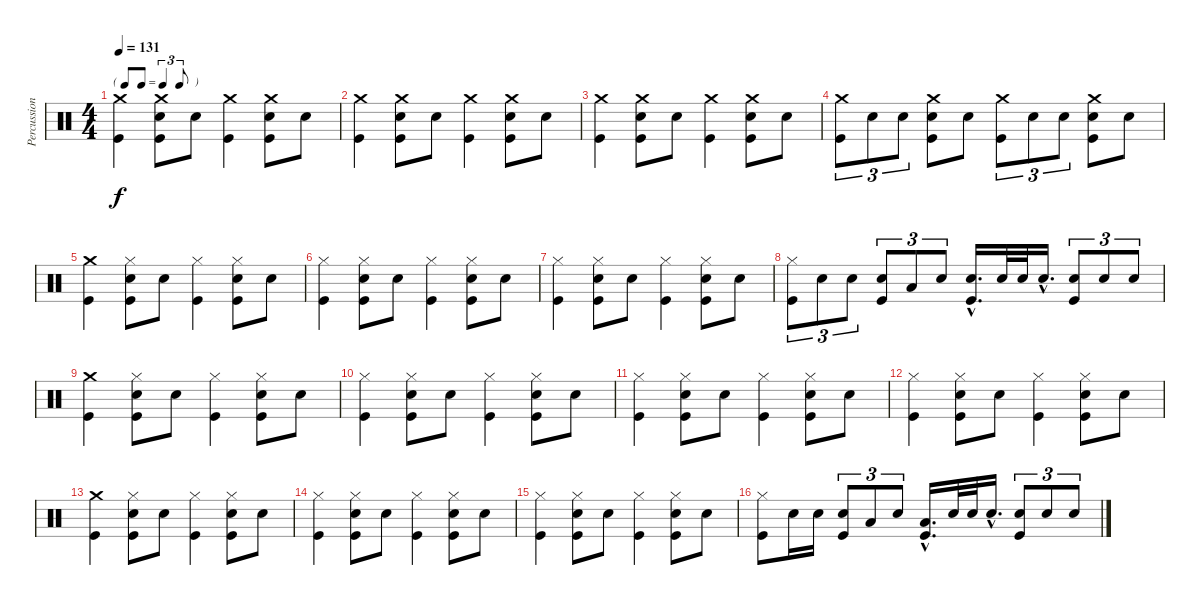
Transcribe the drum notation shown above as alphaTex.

\track ("Percussion" "Percussion") {instrument percussion}
\staff {score}
\articulation defaults
\ts (4 4)
\tf triplet8th
\tempo 131
\clef neutral
\ks c
("Crash medium (hit)" "Kick (hit)").4{dy f} ("Crash medium (hit)" "Snare (hit) 2" "Kick (hit)").8 "Snare (hit) 2".8 ("Crash medium (hit)" "Kick (hit)").4 ("Crash medium (hit)" "Snare (hit) 2" "Kick (hit)").8 "Snare (hit) 2".8 |
("Crash medium (hit)" "Kick (hit)").4 ("Crash medium (hit)" "Snare (hit) 2" "Kick (hit)").8 "Snare (hit) 2".8 ("Crash medium (hit)" "Kick (hit)").4 ("Crash medium (hit)" "Snare (hit) 2" "Kick (hit)").8 "Snare (hit) 2".8 |
("Crash medium (hit)" "Kick (hit)").4 ("Crash medium (hit)" "Snare (hit) 2" "Kick (hit)").8 "Snare (hit) 2".8 ("Crash medium (hit)" "Kick (hit)").4 ("Crash medium (hit)" "Snare (hit) 2" "Kick (hit)").8 "Snare (hit) 2".8 |
("Crash medium (hit)" "Kick (hit)").8{tu (3 2)} "Snare (hit) 2".8{tu (3 2)} "Snare (hit) 2".8{tu (3 2)} ("Crash medium (hit)" "Snare (hit) 2" "Kick (hit)").8 "Snare (hit) 2".8 ("Crash medium (hit)" "Kick (hit)").8{tu (3 2)} "Snare (hit) 2".8{tu (3 2)} "Snare (hit) 2".8{tu (3 2)} ("Crash medium (hit)" "Snare (hit) 2" "Kick (hit)").8 "Snare (hit) 2".8 |
("Crash medium (hit)" "Kick (hit)").4 ("Hi-Hat (closed)" "Snare (hit) 2" "Kick (hit)").8 "Snare (hit) 2".8 ("Hi-Hat (closed)" "Kick (hit)").4 ("Hi-Hat (closed)" "Snare (hit) 2" "Kick (hit)").8 "Snare (hit) 2".8 |
("Hi-Hat (closed)" "Kick (hit)").4 ("Hi-Hat (closed)" "Snare (hit) 2" "Kick (hit)").8 "Snare (hit) 2".8 ("Hi-Hat (closed)" "Kick (hit)").4 ("Hi-Hat (closed)" "Snare (hit) 2" "Kick (hit)").8 "Snare (hit) 2".8 |
("Hi-Hat (closed)" "Kick (hit)").4 ("Hi-Hat (closed)" "Snare (hit) 2" "Kick (hit)").8 "Snare (hit) 2".8 ("Hi-Hat (closed)" "Kick (hit)").4 ("Hi-Hat (closed)" "Snare (hit) 2" "Kick (hit)").8 "Snare (hit) 2".8 |
("Hi-Hat (closed)" "Kick (hit)").8{tu (3 2)} "Snare (hit) 2".8{tu (3 2)} "Snare (hit) 2".8{tu (3 2)} ("Snare (hit) 2" "Kick (hit)").8{tu (3 2)} "Low Tom (hit)".8{tu (3 2)} "Snare (hit) 2".8{tu (3 2)} ("Snare (hit) 2"{hac} "Kick (hit)"{hac}).16{d} "Snare (hit) 2".32 "Snare (hit) 2".32 "Snare (hit) 2"{hac}.16{d} ("Snare (hit) 2" "Kick (hit)").8{tu (3 2)} "Snare (hit) 2".8{tu (3 2)} "Snare (hit) 2".8{tu (3 2)} |
("Crash medium (hit)" "Kick (hit)").4 ("Hi-Hat (closed)" "Snare (hit) 2" "Kick (hit)").8 "Snare (hit) 2".8 ("Hi-Hat (closed)" "Kick (hit)").4 ("Hi-Hat (closed)" "Snare (hit) 2" "Kick (hit)").8 "Snare (hit) 2".8 |
("Hi-Hat (closed)" "Kick (hit)").4 ("Hi-Hat (closed)" "Snare (hit) 2" "Kick (hit)").8 "Snare (hit) 2".8 ("Hi-Hat (closed)" "Kick (hit)").4 ("Hi-Hat (closed)" "Snare (hit) 2" "Kick (hit)").8 "Snare (hit) 2".8 |
("Hi-Hat (closed)" "Kick (hit)").4 ("Hi-Hat (closed)" "Snare (hit) 2" "Kick (hit)").8 "Snare (hit) 2".8 ("Hi-Hat (closed)" "Kick (hit)").4 ("Hi-Hat (closed)" "Snare (hit) 2" "Kick (hit)").8 "Snare (hit) 2".8 |
("Hi-Hat (closed)" "Kick (hit)").4 ("Hi-Hat (closed)" "Snare (hit) 2" "Kick (hit)").8 "Snare (hit) 2".8 ("Hi-Hat (closed)" "Kick (hit)").4 ("Hi-Hat (closed)" "Snare (hit) 2" "Kick (hit)").8 "Snare (hit) 2".8 |
("Crash medium (hit)" "Kick (hit)").4 ("Hi-Hat (closed)" "Snare (hit) 2" "Kick (hit)").8 "Snare (hit) 2".8 ("Hi-Hat (closed)" "Kick (hit)").4 ("Hi-Hat (closed)" "Snare (hit) 2" "Kick (hit)").8 "Snare (hit) 2".8 |
("Hi-Hat (closed)" "Kick (hit)").4 ("Hi-Hat (closed)" "Snare (hit) 2" "Kick (hit)").8 "Snare (hit) 2".8 ("Hi-Hat (closed)" "Kick (hit)").4 ("Hi-Hat (closed)" "Snare (hit) 2" "Kick (hit)").8 "Snare (hit) 2".8 |
("Hi-Hat (closed)" "Kick (hit)").4 ("Hi-Hat (closed)" "Snare (hit) 2" "Kick (hit)").8 "Snare (hit) 2".8 ("Hi-Hat (closed)" "Kick (hit)").4 ("Hi-Hat (closed)" "Snare (hit) 2" "Kick (hit)").8 "Snare (hit) 2".8 |
("Hi-Hat (closed)" "Kick (hit)").8 "Snare (hit) 2".16 "Snare (hit) 2".16 ("Snare (hit) 2" "Kick (hit)").8{tu (3 2)} "Low Tom (hit)".8{tu (3 2)} "Snare (hit) 2".8{tu (3 2)} ("Low Tom (hit)"{hac} "Kick (hit)"{hac}).16{d} "Snare (hit) 2".32 "Snare (hit) 2".32 "Snare (hit) 2"{hac}.16{d} ("Snare (hit) 2" "Kick (hit)").8{tu (3 2)} "Snare (hit) 2".8{tu (3 2)} "Snare (hit) 2".8{tu (3 2)}
